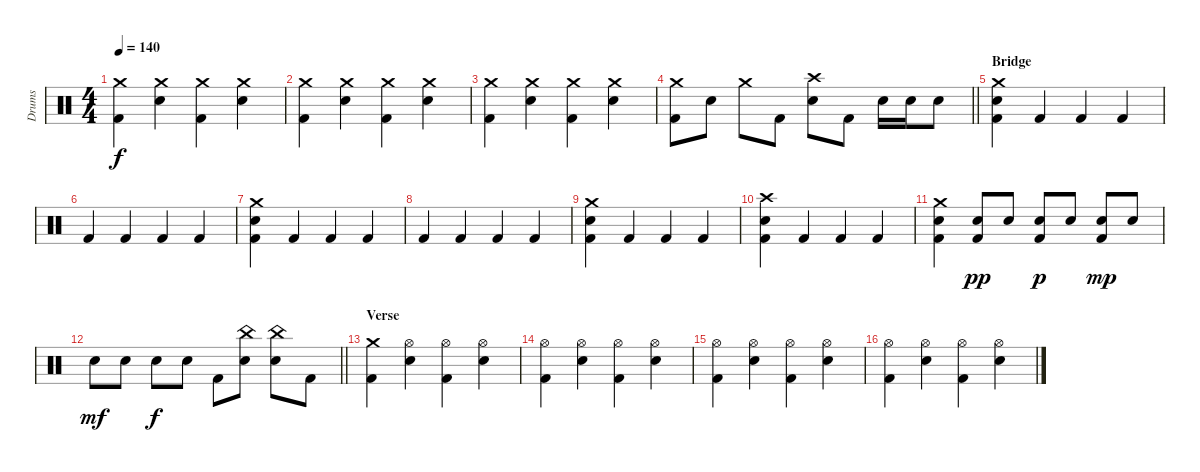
\track ("Drums" "Drums") {instrument percussion}
\staff {score}
\articulation defaults
\ts (4 4)
\tempo 140
\clef neutral
\ks c
("Crash medium (hit)" "Kick (hit) 2").4{dy f} ("Crash medium (hit)" "Snare (hit) 2").4 ("Crash medium (hit)" "Kick (hit) 2").4 ("Crash medium (hit)" "Snare (hit) 2").4 |
("Crash medium (hit)" "Kick (hit) 2").4 ("Crash medium (hit)" "Snare (hit) 2").4 ("Crash medium (hit)" "Kick (hit) 2").4 ("Crash medium (hit)" "Snare (hit) 2").4 |
("Crash medium (hit)" "Kick (hit) 2").4 ("Crash medium (hit)" "Snare (hit) 2").4 ("Crash medium (hit)" "Kick (hit) 2").4 ("Crash medium (hit)" "Snare (hit) 2").4 |
\barLineRight lightlight
("Crash medium (hit)" "Kick (hit) 2").8 "Snare (hit) 2".8 "Crash medium (hit)".8 "Kick (hit) 2".8 ("Crash high (hit)" "Snare (hit) 2").8 "Kick (hit) 2".8 "Snare (hit) 2".16 "Snare (hit) 2".16 "Snare (hit) 2".8 |
\section ("" "Bridge")
("Crash medium (hit)" "Snare (hit) 2" "Kick (hit) 2").4 "Kick (hit) 2".4 "Kick (hit) 2".4 "Kick (hit) 2".4 |
"Kick (hit) 2".4 "Kick (hit) 2".4 "Kick (hit) 2".4 "Kick (hit) 2".4 |
("Crash medium (hit)" "Snare (hit) 2" "Kick (hit) 2").4 "Kick (hit) 2".4 "Kick (hit) 2".4 "Kick (hit) 2".4 |
"Kick (hit) 2".4 "Kick (hit) 2".4 "Kick (hit) 2".4 "Kick (hit) 2".4 |
("Crash medium (hit)" "Snare (hit) 2" "Kick (hit) 2").4 "Kick (hit) 2".4 "Kick (hit) 2".4 "Kick (hit) 2".4 |
("Crash high (hit)" "Snare (hit) 2" "Kick (hit) 2").4 "Kick (hit) 2".4 "Kick (hit) 2".4 "Kick (hit) 2".4 |
("Crash medium (hit)" "Snare (hit) 2" "Kick (hit) 2").4 ("Snare (hit) 2" "Kick (hit) 2").8{dy pp} "Snare (hit) 2".8 ("Snare (hit) 2" "Kick (hit) 2").8{dy p} "Snare (hit) 2".8 ("Snare (hit) 2" "Kick (hit) 2").8{dy mp} "Snare (hit) 2".8 |
\barLineRight lightlight "Snare (hit) 2".8{dy mf} "Snare (hit) 2".8 "Snare (hit) 2".8{dy f} "Snare (hit) 2".8 "Kick (hit) 2".8
("China (hit)" "Snare (hit) 2").8 ("China (hit)" "Snare (hit) 2").8 "Kick (hit) 2".8 |
\section ("" "Verse")
("Crash medium (hit)" "Kick (hit) 2").4 ("Hi-Hat (open)" "Snare (hit) 2").4 ("Hi-Hat (open)" "Kick (hit) 2").4 ("Hi-Hat (open)" "Snare (hit) 2").4 |
("Hi-Hat (open)" "Kick (hit) 2").4 ("Hi-Hat (open)" "Snare (hit) 2").4 ("Hi-Hat (open)" "Kick (hit) 2").4 ("Hi-Hat (open)" "Snare (hit) 2").4 |
("Hi-Hat (open)" "Kick (hit) 2").4 ("Hi-Hat (open)" "Snare (hit) 2").4 ("Hi-Hat (open)" "Kick (hit) 2").4 ("Hi-Hat (open)" "Snare (hit) 2").4 |
("Hi-Hat (open)" "Kick (hit) 2").4 ("Hi-Hat (open)" "Snare (hit) 2").4 ("Hi-Hat (open)" "Kick (hit) 2").4 ("Hi-Hat (open)" "Snare (hit) 2").4
